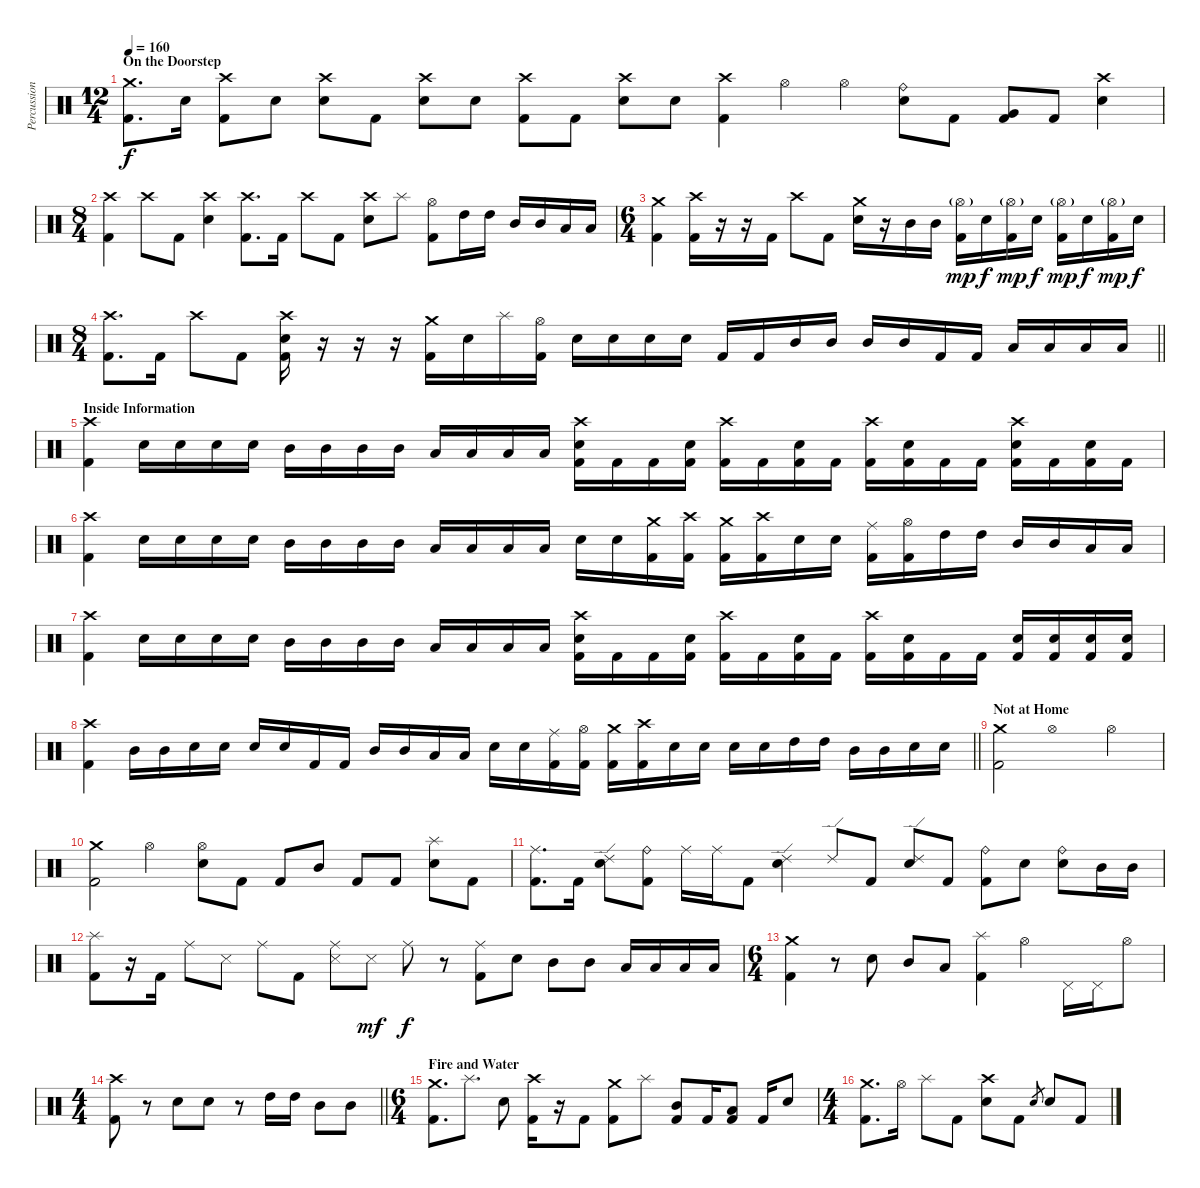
\track ("Percussion" "Percussion") {instrument percussion}
\staff {score}
\articulation defaults
\ts (12 4)
\section ("" "On the Doorstep")
\tempo 160
\clef neutral
\ks c
("Crash medium (hit)" "Kick (hit) 2").8{d dy f} "Electric Snare (hit)".16 ("Kick (hit) 2" "Crash high (hit)").8 "Electric Snare (hit)".8 ("Electric Snare (hit)" "Crash high (hit)").8 "Kick (hit) 2".8 ("Electric Snare (hit)" "Crash high (hit)").8 "Electric Snare (hit)".8 ("Kick (hit) 2" "Crash high (hit)").8 "Kick (hit) 2".8 ("Electric Snare (hit)" "Crash high (hit)").8 "Electric Snare (hit)".8 ("Kick (hit) 2" "Crash high (hit)").4 "Hi-Hat (open)".4 "Hi-Hat (open)".4 ("Electric Snare (hit)" "Ride (bell)").8 "Kick (hit) 2".8 ("Kick (hit) 2" "Very Low Tom (hit)").8 "Kick (hit) 2".8 ("Electric Snare (hit)" "Crash high (hit)").4 |
\ts (8 4)
("Kick (hit) 2" "Crash high (hit)").4 "Crash high (hit)".8 "Kick (hit) 2".8 ("Electric Snare (hit)" "Crash high (hit)").4 ("Kick (hit) 2" "Crash high (hit)").8{d} "Kick (hit) 2".16 "Crash high (hit)".8 "Kick (hit) 2".8 ("Electric Snare (hit)" "Crash high (hit)").8 "Splash (hit)".8 ("Kick (hit) 2" "Hi-Hat (open)").8 "High Tom (hit)".16 "High Tom (hit)".16 "Mid Tom (hit)".16 "Mid Tom (hit)".16 "Low Tom (hit)".16 "Low Tom (hit)".16 |
\ts (6 4)
("Kick (hit) 2" "Crash medium (hit)").4 ("Kick (hit) 2" "Crash high (hit)").16 r.16 r.16 "Kick (hit) 2".16 "Crash high (hit)".8 "Kick (hit) 2".8 ("Electric Snare (hit)" "Crash medium (hit)").16 r.16 "Mid Tom (hit)".16 "Mid Tom (hit)".16 ("Hi-Hat (open)"{g} "Kick (hit) 2").16{dy mp} "Electric Snare (hit)".16{dy f} ("Hi-Hat (open)"{g} "Kick (hit) 2").16{dy mp} "Electric Snare (hit)".16{dy f} ("Hi-Hat (open)"{g} "Kick (hit) 2").16{dy mp} "Electric Snare (hit)".16{dy f} ("Hi-Hat (open)"{g} "Kick (hit) 2").16{dy mp} "Electric Snare (hit)".16{dy f} |
\ts (8 4)
\barLineRight lightlight
("Kick (hit) 2" "Crash high (hit)").8{d} "Kick (hit) 2".16 "Crash high (hit)".8 "Kick (hit) 2".8 ("Crash high (hit)" "Electric Snare (hit)" "Kick (hit) 2").16 r.16 r.16 r.16 ("Crash medium (hit)" "Kick (hit) 2").16 "Electric Snare (hit)".16 "Splash (hit)".16 ("Hi-Hat (open)" "Kick (hit) 2").16 "Electric Snare (hit)".16 "Electric Snare (hit)".16 "Electric Snare (hit)".16 "Electric Snare (hit)".16 "Kick (hit) 2".16 "Kick (hit) 2".16 "Mid Tom (hit)".16 "Mid Tom (hit)".16 "Mid Tom (hit)".16 "Mid Tom (hit)".16 "Kick (hit) 2".16 "Kick (hit) 2".16 "Low Tom (hit)".16 "Low Tom (hit)".16 "Low Tom (hit)".16 "Low Tom (hit)".16 |
\section ("" "Inside Information")
("Crash high (hit)" "Kick (hit) 2").4 "Electric Snare (hit)".16 "Electric Snare (hit)".16 "Electric Snare (hit)".16 "Electric Snare (hit)".16 "Mid Tom (hit)".16 "Mid Tom (hit)".16 "Mid Tom (hit)".16 "Mid Tom (hit)".16 "Low Tom (hit)".16 "Low Tom (hit)".16 "Low Tom (hit)".16 "Low Tom (hit)".16 ("Crash high (hit)" "Electric Snare (hit)" "Kick (hit) 2").16 "Kick (hit) 2".16 "Kick (hit) 2".16 ("Electric Snare (hit)" "Kick (hit) 2").16 ("Crash high (hit)" "Kick (hit) 2").16 "Kick (hit) 2".16 ("Electric Snare (hit)" "Kick (hit) 2").16 "Kick (hit) 2".16 ("Crash high (hit)" "Kick (hit) 2").16 ("Electric Snare (hit)" "Kick (hit) 2").16 "Kick (hit) 2".16 "Kick (hit) 2".16 ("Crash high (hit)" "Electric Snare (hit)" "Kick (hit) 2").16 "Kick (hit) 2".16 ("Electric Snare (hit)" "Kick (hit) 2").16 "Kick (hit) 2".16 |
("Crash high (hit)" "Kick (hit) 2").4 "Electric Snare (hit)".16 "Electric Snare (hit)".16 "Electric Snare (hit)".16 "Electric Snare (hit)".16 "Mid Tom (hit)".16 "Mid Tom (hit)".16 "Mid Tom (hit)".16 "Mid Tom (hit)".16 "Low Tom (hit)".16 "Low Tom (hit)".16 "Low Tom (hit)".16 "Low Tom (hit)".16 "Electric Snare (hit)".16 "Electric Snare (hit)".16 ("Crash medium (hit)" "Kick (hit) 2").16 ("Crash high (hit)" "Kick (hit) 2").16 ("Crash medium (hit)" "Kick (hit) 2").16 ("Crash high (hit)" "Kick (hit) 2").16 "Electric Snare (hit)".16 "Electric Snare (hit)".16 ("Ride (middle)" "Kick (hit) 2").16 ("Hi-Hat (open)" "Kick (hit) 2").16 "High Tom (hit)".16 "High Tom (hit)".16 "Mid Tom (hit)".16 "Mid Tom (hit)".16 "Low Tom (hit)".16 "Low Tom (hit)".16 |
("Crash high (hit)" "Kick (hit) 2").4 "Electric Snare (hit)".16 "Electric Snare (hit)".16 "Electric Snare (hit)".16 "Electric Snare (hit)".16 "Mid Tom (hit)".16 "Mid Tom (hit)".16 "Mid Tom (hit)".16 "Mid Tom (hit)".16 "Low Tom (hit)".16 "Low Tom (hit)".16 "Low Tom (hit)".16 "Low Tom (hit)".16 ("Crash high (hit)" "Electric Snare (hit)" "Kick (hit) 2").16 "Kick (hit) 2".16 "Kick (hit) 2".16 ("Electric Snare (hit)" "Kick (hit) 2").16 ("Crash high (hit)" "Kick (hit) 2").16 "Kick (hit) 2".16 ("Electric Snare (hit)" "Kick (hit) 2").16 "Kick (hit) 2".16 ("Crash high (hit)" "Kick (hit) 2").16 ("Electric Snare (hit)" "Kick (hit) 2").16 "Kick (hit) 2".16 "Kick (hit) 2".16 ("Electric Snare (hit)" "Kick (hit) 2").16 ("Electric Snare (hit)" "Kick (hit) 2").16 ("Electric Snare (hit)" "Kick (hit) 2").16 ("Electric Snare (hit)" "Kick (hit) 2").16 |
\barLineRight lightlight
("Crash high (hit)" "Kick (hit) 2").4 "Mid Tom (hit)".16 "Mid Tom (hit)".16 "Electric Snare (hit)".16 "Electric Snare (hit)".16 "Electric Snare (hit)".16 "Electric Snare (hit)".16 "Kick (hit) 2".16 "Kick (hit) 2".16 "Mid Tom (hit)".16 "Mid Tom (hit)".16 "Low Tom (hit)".16 "Low Tom (hit)".16 "Electric Snare (hit)".16 "Electric Snare (hit)".16 ("Ride (middle)" "Kick (hit) 2").16 ("Hi-Hat (open)" "Kick (hit) 2").16 ("Crash medium (hit)" "Kick (hit) 2").16 ("Crash high (hit)" "Kick (hit) 2").16 "Electric Snare (hit)".16 "Electric Snare (hit)".16 "Electric Snare (hit)".16 "Electric Snare (hit)".16 "High Tom (hit)".16 "High Tom (hit)".16 "Mid Tom (hit)".16 "Mid Tom (hit)".16 "Electric Snare (hit)".16 "Electric Snare (hit)".16 |
\section ("" "Not at Home")
("Kick (hit) 2" "Crash medium (hit)").2 "Hi-Hat (open)".1 "Hi-Hat (open)".2 |
("Kick (hit) 2" "Crash medium (hit)").2 "Hi-Hat (open)".2 ("Electric Snare (hit)" "Hi-Hat (open)").8 "Kick (hit) 2".8 "Kick (hit) 2".8 "Mid Tom (hit)".8 "Kick (hit) 2".8 "Kick (hit) 2".8 ("Electric Snare (hit)" "Splash (hit)").8 "Kick (hit) 2".8 |
("Kick (hit) 2" "Ride (middle)").8{d} "Kick (hit) 2".16 ("Electric Snare (hit)" "Ride (edge) 2").8 ("Kick (hit) 2" "Ride (bell)").8 "Ride (middle)".16 "Ride (middle)".16 "Kick (hit) 2".8 ("Electric Snare (hit)" "Ride (edge) 2").4 "Ride (edge) 2".8 "Kick (hit) 2".8 ("Electric Snare (hit)" "Ride (edge) 2").8 "Kick (hit) 2".8 ("Kick (hit) 2" "Ride (bell)").8 "Electric Snare (hit)".8 ("Electric Snare (hit)" "Ride (bell)").8 "Mid Tom (hit)".16 "Mid Tom (hit)".16 |
("Kick (hit) 2" "Splash (hit)").8 r.16 "Kick (hit) 2".16 "Ride (middle)".8 "Snare (side stick) 3".8 "Ride (middle)".8 "Kick (hit) 2".8 ("Snare (side stick) 3" "Ride (middle)").8 "Snare (side stick) 3".8{dy mf} "Ride (middle)".8{dy f} r.8 ("Kick (hit) 2" "Ride (middle)").8 "Electric Snare (hit)".8 "Mid Tom (hit)".8 "Mid Tom (hit)".8 "Low Tom (hit)".16 "Low Tom (hit)".16 "Low Tom (hit)".16 "Low Tom (hit)".16 |
\ts (6 4)
("Crash medium (hit)" "Kick (hit) 2").4 r.8 "Electric Snare (hit)".8 "Mid Tom (hit)".8 "Low Tom (hit)".8 ("Splash (hit)" "Kick (hit) 2").4 "Hi-Hat (open)".4 "Pedal Hi-Hat (hit)".16 "Pedal Hi-Hat (hit)".16 "Hi-Hat (open)".8 |
\ts (4 4)
\barLineRight lightlight
("Crash high (hit)" "Kick (hit) 2").8 r.8 "Electric Snare (hit)".8 "Electric Snare (hit)".8 r.8 "High Tom (hit)".16 "High Tom (hit)".16 "Mid Tom (hit)".8 "Mid Tom (hit)".8 |
\ts (6 4)
\section ("" "Fire and Water")
("Crash medium (hit)" "Kick (hit) 2").8{d} "Splash (hit)".8{d} "Electric Snare (hit)".8 ("Crash high (hit)" "Kick (hit) 2").16 r.16 "Kick (hit) 2".8 ("Crash medium (hit)" "Kick (hit) 2").8 "Splash (hit)".8 ("Mid Tom (hit)" "Kick (hit) 2").8 "Kick (hit) 2".16 ("Low Tom (hit)" "Kick (hit) 2").8 "Kick (hit) 2".16 "Electric Snare (hit)".8 |
\ts (4 4)
("Crash medium (hit)" "Kick (hit) 2").8{d} "Hi-Hat (open)".16 "Splash (hit)".8 "Kick (hit) 2".8 ("Crash high (hit)" "Electric Snare (hit)").8 "Kick (hit) 2".8 "Electric Snare (hit)".8{gr} "Electric Snare (hit)".8 "Kick (hit) 2".8
